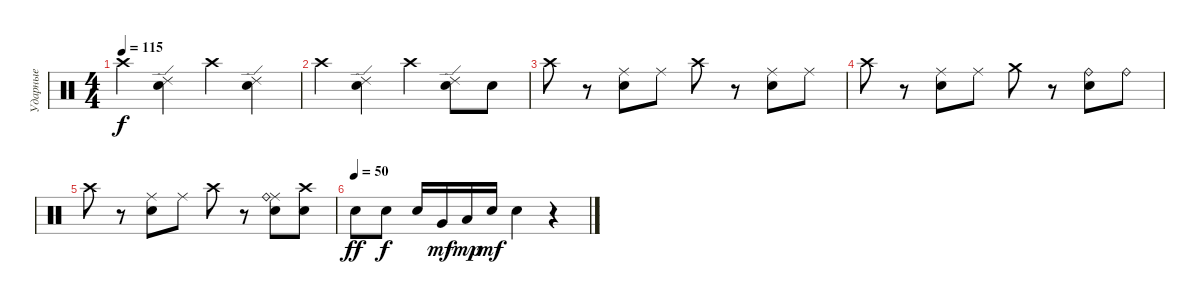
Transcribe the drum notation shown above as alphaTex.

\track ("Ударные" "Ударные") {instrument percussion}
\staff {score}
\articulation defaults
\ts (4 4)
\tempo 115
\clef neutral
\ks c "Crash high (hit)".4{dy f}
("Ride (edge) 2" "Snare (hit) 2").4 "Crash high (hit)".4 ("Ride (edge) 2" "Snare (hit) 2").4 |
"Crash high (hit)".4 ("Ride (edge) 2" "Snare (hit) 2").4 "Crash high (hit)".4 ("Ride (edge) 2" "Snare (hit) 2").8 "Snare (hit) 2".8 |
"Crash high (hit)".8 r.8 ("Ride (middle)" "Snare (hit) 2").8 "Ride (middle)".8 "Crash high (hit)".8 r.8 ("Ride (middle)" "Snare (hit) 2").8 "Ride (middle)".8 |
"Crash high (hit)".8 r.8 ("Ride (middle)" "Snare (hit) 2").8 "Ride (middle)".8 "Crash medium (hit)".8 r.8 ("Ride (bell)" "Snare (hit) 2").8 "Ride (bell)".8 |
"Crash high (hit)".8 r.8 ("Ride (middle)" "Snare (hit) 2").8 "Ride (middle)".8 "Crash high (hit)".8 r.8 ("Ride (middle)" "Ride (bell)" "Snare (hit) 2").8 ("Crash high (hit)" "Electric Snare (hit)").8 |
\tempo (50)
"Snare (hit) 2".8{dy ff} "Electric Snare (hit)".8{dy f} "Electric Snare (hit)".16 "Very Low Tom (hit)".16{dy mf} "Low Floor Tom (hit)".16{dy mp} "Electric Snare (hit)".16{dy mf} "Snare (hit) 2".4 r.4
